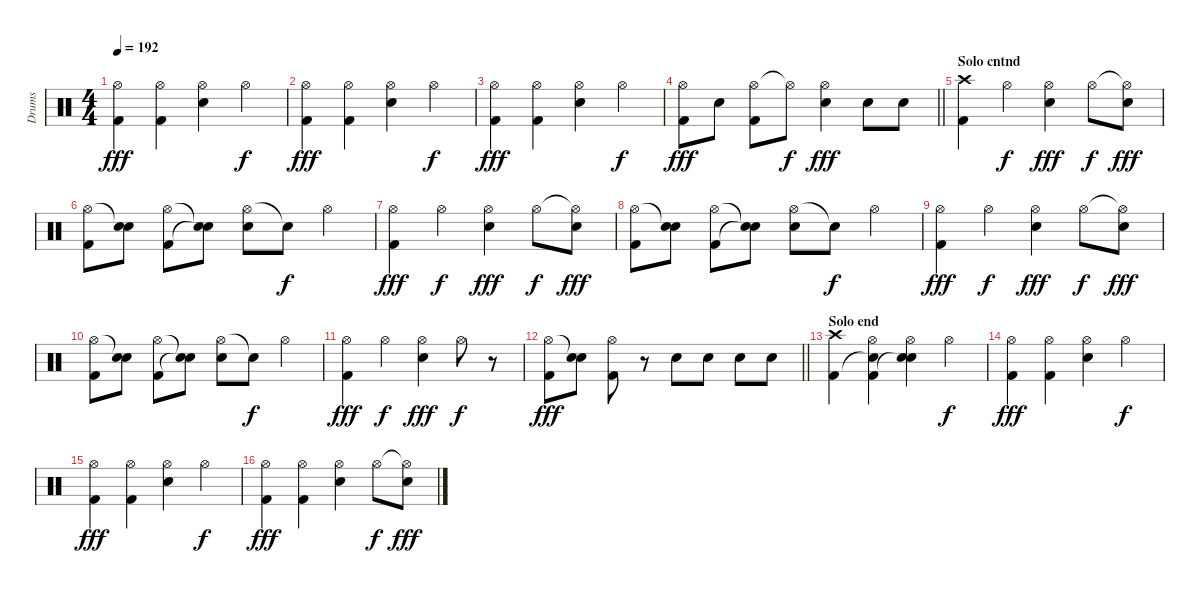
\track ("Drums" "Drums") {instrument percussion}
\staff {score}
\articulation defaults
\ts (4 4)
\tempo 192
\clef neutral
\ks c
("Hi-Hat (open)" "Kick (hit) 2").4{dy fff} ("Hi-Hat (open)" "Kick (hit) 2").4 ("Hi-Hat (open)" "Snare (hit) 2").4 "Hi-Hat (open)".4{dy f} |
("Hi-Hat (open)" "Kick (hit) 2").4{dy fff} ("Hi-Hat (open)" "Kick (hit) 2").4 ("Hi-Hat (open)" "Snare (hit) 2").4 "Hi-Hat (open)".4{dy f} |
("Hi-Hat (open)" "Kick (hit) 2").4{dy fff} ("Hi-Hat (open)" "Kick (hit) 2").4 ("Hi-Hat (open)" "Snare (hit) 2").4 "Hi-Hat (open)".4{dy f} |
\barLineRight lightlight
("Hi-Hat (open)" "Kick (hit) 2").8{dy fff} "Snare (hit) 2".8 ("Hi-Hat (open)" "Kick (hit) 2").8 "Hi-Hat (open)"{t}.8{dy f} ("Hi-Hat (open)" "Snare (hit) 2").4{dy fff} "Snare (hit) 2".8 "Snare (hit) 2".8 |
\section ("" "Solo cntnd")
("Crash high (hit)" "Kick (hit) 2").4 "Hi-Hat (open)".4{dy f} ("Hi-Hat (open)" "Snare (hit) 2").4{dy fff} "Hi-Hat (open)".8{dy f} ("Hi-Hat (open)"{t} "Snare (hit) 2").8{dy fff} |
("Hi-Hat (open)" "Kick (hit) 2").8 ("Snare (hit)"{t} "Snare (hit) 2").8 ("Hi-Hat (open)" "Kick (hit) 2").8 ("Snare (hit)"{t} "Snare (hit)"{t}).8 ("Hi-Hat (open)" "Snare (hit) 2").8 "Snare (hit)"{t}.8{dy f} "Hi-Hat (open)".4 |
("Hi-Hat (open)" "Kick (hit) 2").4{dy fff} "Hi-Hat (open)".4{dy f} ("Hi-Hat (open)" "Snare (hit) 2").4{dy fff} "Hi-Hat (open)".8{dy f} ("Hi-Hat (open)"{t} "Snare (hit) 2").8{dy fff} |
("Hi-Hat (open)" "Kick (hit) 2").8 ("Snare (hit)"{t} "Snare (hit) 2").8 ("Hi-Hat (open)" "Kick (hit) 2").8 ("Snare (hit)"{t} "Snare (hit)"{t}).8 ("Hi-Hat (open)" "Snare (hit) 2").8 "Snare (hit)"{t}.8{dy f} "Hi-Hat (open)".4 |
("Hi-Hat (open)" "Kick (hit) 2").4{dy fff} "Hi-Hat (open)".4{dy f} ("Hi-Hat (open)" "Snare (hit) 2").4{dy fff} "Hi-Hat (open)".8{dy f} ("Hi-Hat (open)"{t} "Snare (hit) 2").8{dy fff} |
("Hi-Hat (open)" "Kick (hit) 2").8 ("Snare (hit)"{t} "Snare (hit) 2").8 ("Hi-Hat (open)" "Kick (hit) 2").8 ("Snare (hit)"{t} "Snare (hit)"{t}).8 ("Hi-Hat (open)" "Snare (hit) 2").8 "Snare (hit)"{t}.8{dy f} "Hi-Hat (open)".4 |
("Hi-Hat (open)" "Kick (hit) 2").4{dy fff} "Hi-Hat (open)".4{dy f} ("Hi-Hat (open)" "Snare (hit) 2").4{dy fff} "Hi-Hat (open)".8{dy f} r.8 |
\barLineRight lightlight
("Hi-Hat (open)" "Kick (hit) 2").8{dy fff} ("Snare (hit)"{t} "Snare (hit) 2").8 ("Hi-Hat (open)" "Kick (hit) 2").8 r.8 "Snare (hit) 2".8 "Snare (hit) 2".8 "Snare (hit) 2".8 "Snare (hit) 2".8 |
\section ("" "Solo end")
("Crash high (hit)" "Kick (hit) 2").4 ("Hi-Hat (open)" "Snare (hit)"{t} "Kick (hit) 2").4 ("Hi-Hat (open)" "Snare (hit) 2" "Snare (hit)"{t}).4 "Hi-Hat (open)".4{dy f} |
("Hi-Hat (open)" "Kick (hit) 2").4{dy fff} ("Hi-Hat (open)" "Kick (hit) 2").4 ("Hi-Hat (open)" "Snare (hit) 2").4 "Hi-Hat (open)".4{dy f} |
("Hi-Hat (open)" "Kick (hit) 2").4{dy fff} ("Hi-Hat (open)" "Kick (hit) 2").4 ("Hi-Hat (open)" "Snare (hit) 2").4 "Hi-Hat (open)".4{dy f} |
("Hi-Hat (open)" "Kick (hit) 2").4{dy fff} ("Hi-Hat (open)" "Kick (hit) 2").4 ("Hi-Hat (open)" "Snare (hit) 2").4 "Hi-Hat (open)".8{dy f} ("Hi-Hat (open)"{t} "Snare (hit) 2").8{dy fff}
